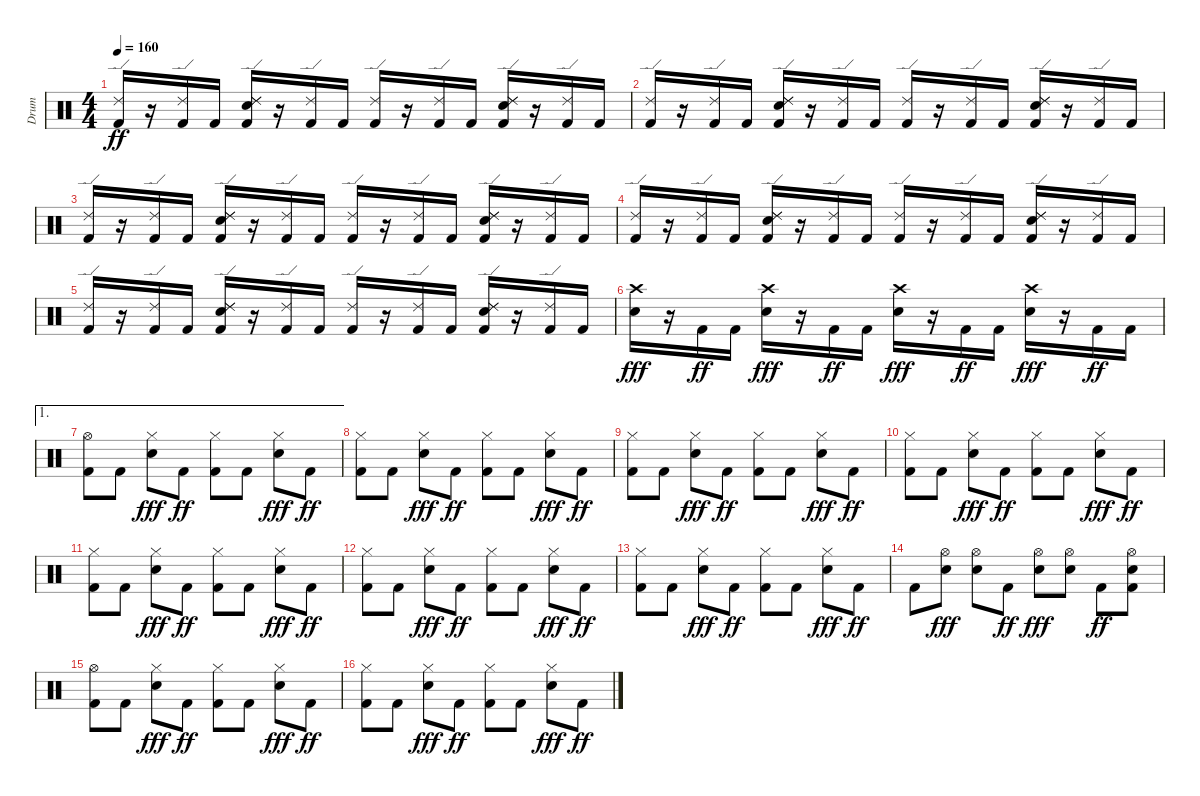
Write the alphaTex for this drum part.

\track ("Drum" "Drum") {instrument percussion}
\staff {score}
\articulation defaults
\ts (4 4)
\tempo 160
\clef neutral
\ks c
("Ride (edge) 2" "Kick (hit) 2").16{dy ff} r.16 ("Ride (edge) 2" "Kick (hit) 2").16 "Kick (hit) 2".16 ("Ride (edge) 2" "Snare (hit) 2" "Kick (hit) 2" "Ride (edge) 2").16 r.16 ("Ride (edge) 2" "Kick (hit) 2").16 "Kick (hit) 2".16 ("Ride (edge) 2" "Kick (hit) 2").16 r.16 ("Ride (edge) 2" "Kick (hit) 2").16 "Kick (hit) 2".16 ("Ride (edge) 2" "Snare (hit) 2" "Kick (hit) 2" "Ride (edge) 2").16 r.16 ("Ride (edge) 2" "Kick (hit) 2").16 "Kick (hit) 2".16 |
("Ride (edge) 2" "Kick (hit) 2").16 r.16 ("Ride (edge) 2" "Kick (hit) 2").16 "Kick (hit) 2".16 ("Ride (edge) 2" "Snare (hit) 2" "Kick (hit) 2" "Ride (edge) 2").16 r.16 ("Ride (edge) 2" "Kick (hit) 2").16 "Kick (hit) 2".16 ("Ride (edge) 2" "Kick (hit) 2").16 r.16 ("Ride (edge) 2" "Kick (hit) 2").16 "Kick (hit) 2".16 ("Ride (edge) 2" "Snare (hit) 2" "Kick (hit) 2" "Ride (edge) 2").16 r.16 ("Ride (edge) 2" "Kick (hit) 2").16 "Kick (hit) 2".16 |
("Ride (edge) 2" "Kick (hit) 2").16 r.16 ("Ride (edge) 2" "Kick (hit) 2").16 "Kick (hit) 2".16 ("Ride (edge) 2" "Snare (hit) 2" "Kick (hit) 2" "Ride (edge) 2").16 r.16 ("Ride (edge) 2" "Kick (hit) 2").16 "Kick (hit) 2".16 ("Ride (edge) 2" "Kick (hit) 2").16 r.16 ("Ride (edge) 2" "Kick (hit) 2").16 "Kick (hit) 2".16 ("Ride (edge) 2" "Snare (hit) 2" "Kick (hit) 2" "Ride (edge) 2").16 r.16 ("Ride (edge) 2" "Kick (hit) 2").16 "Kick (hit) 2".16 |
("Ride (edge) 2" "Kick (hit) 2").16 r.16 ("Ride (edge) 2" "Kick (hit) 2").16 "Kick (hit) 2".16 ("Ride (edge) 2" "Snare (hit) 2" "Kick (hit) 2" "Ride (edge) 2").16 r.16 ("Ride (edge) 2" "Kick (hit) 2").16 "Kick (hit) 2".16 ("Ride (edge) 2" "Kick (hit) 2").16 r.16 ("Ride (edge) 2" "Kick (hit) 2").16 "Kick (hit) 2".16 ("Ride (edge) 2" "Snare (hit) 2" "Kick (hit) 2" "Ride (edge) 2").16 r.16 ("Ride (edge) 2" "Kick (hit) 2").16 "Kick (hit) 2".16 |
("Ride (edge) 2" "Kick (hit) 2").16 r.16 ("Ride (edge) 2" "Kick (hit) 2").16 "Kick (hit) 2".16 ("Ride (edge) 2" "Snare (hit) 2" "Kick (hit) 2" "Ride (edge) 2").16 r.16 ("Ride (edge) 2" "Kick (hit) 2").16 "Kick (hit) 2".16 ("Ride (edge) 2" "Kick (hit) 2").16 r.16 ("Ride (edge) 2" "Kick (hit) 2").16 "Kick (hit) 2".16 ("Ride (edge) 2" "Snare (hit) 2" "Kick (hit) 2" "Ride (edge) 2").16 r.16 ("Ride (edge) 2" "Kick (hit) 2").16 "Kick (hit) 2".16 |
("Crash high (hit)" "Snare (hit) 2").16{dy fff} r.16 "Kick (hit) 2".16{dy ff} "Kick (hit) 2".16 ("Crash high (hit)" "Snare (hit) 2").16{dy fff} r.16 "Kick (hit) 2".16{dy ff} "Kick (hit) 2".16 ("Crash high (hit)" "Snare (hit) 2").16{dy fff} r.16 "Kick (hit) 2".16{dy ff} "Kick (hit) 2".16 ("Crash high (hit)" "Snare (hit) 2").16{dy fff} r.16 "Kick (hit) 2".16{dy ff} "Kick (hit) 2".16 |
\ae 1
("Hi-Hat (open)" "Kick (hit) 2").8 "Kick (hit) 2".8 ("Hi-Hat (closed)" "Snare (hit) 2").8{dy fff} "Kick (hit) 2".8{dy ff} ("Hi-Hat (closed)" "Kick (hit) 2").8 "Kick (hit) 2".8 ("Hi-Hat (closed)" "Snare (hit) 2").8{dy fff} "Kick (hit) 2".8{dy ff} |
("Hi-Hat (closed)" "Kick (hit) 2").8 "Kick (hit) 2".8 ("Hi-Hat (closed)" "Snare (hit) 2").8{dy fff} "Kick (hit) 2".8{dy ff} ("Hi-Hat (closed)" "Kick (hit) 2").8 "Kick (hit) 2".8 ("Hi-Hat (closed)" "Snare (hit) 2").8{dy fff} "Kick (hit) 2".8{dy ff} |
("Hi-Hat (closed)" "Kick (hit) 2").8 "Kick (hit) 2".8 ("Hi-Hat (closed)" "Snare (hit) 2").8{dy fff} "Kick (hit) 2".8{dy ff} ("Hi-Hat (closed)" "Kick (hit) 2").8 "Kick (hit) 2".8 ("Hi-Hat (closed)" "Snare (hit) 2").8{dy fff} "Kick (hit) 2".8{dy ff} |
("Hi-Hat (closed)" "Kick (hit) 2").8 "Kick (hit) 2".8 ("Hi-Hat (closed)" "Snare (hit) 2").8{dy fff} "Kick (hit) 2".8{dy ff} ("Hi-Hat (closed)" "Kick (hit) 2").8 "Kick (hit) 2".8 ("Hi-Hat (closed)" "Snare (hit) 2").8{dy fff} "Kick (hit) 2".8{dy ff} |
("Hi-Hat (closed)" "Kick (hit) 2").8 "Kick (hit) 2".8 ("Hi-Hat (closed)" "Snare (hit) 2").8{dy fff} "Kick (hit) 2".8{dy ff} ("Hi-Hat (closed)" "Kick (hit) 2").8 "Kick (hit) 2".8 ("Hi-Hat (closed)" "Snare (hit) 2").8{dy fff} "Kick (hit) 2".8{dy ff} |
("Hi-Hat (closed)" "Kick (hit) 2").8 "Kick (hit) 2".8 ("Hi-Hat (closed)" "Snare (hit) 2").8{dy fff} "Kick (hit) 2".8{dy ff} ("Hi-Hat (closed)" "Kick (hit) 2").8 "Kick (hit) 2".8 ("Hi-Hat (closed)" "Snare (hit) 2").8{dy fff} "Kick (hit) 2".8{dy ff} |
("Hi-Hat (closed)" "Kick (hit) 2").8 "Kick (hit) 2".8 ("Hi-Hat (closed)" "Snare (hit) 2").8{dy fff} "Kick (hit) 2".8{dy ff} ("Hi-Hat (closed)" "Kick (hit) 2").8 "Kick (hit) 2".8 ("Hi-Hat (closed)" "Snare (hit) 2").8{dy fff} "Kick (hit) 2".8{dy ff} |
"Kick (hit) 2".8 ("Hi-Hat (open)" "Snare (hit) 2").8{dy fff} ("Hi-Hat (open)" "Snare (hit) 2").8 "Kick (hit) 2".8{dy ff} ("Hi-Hat (open)" "Snare (hit) 2").8{dy fff} ("Hi-Hat (open)" "Snare (hit) 2").8 "Kick (hit) 2".8{dy ff} ("Hi-Hat (open)" "Snare (hit) 2" "Kick (hit) 2").8 |
("Hi-Hat (open)" "Kick (hit) 2").8 "Kick (hit) 2".8 ("Hi-Hat (closed)" "Snare (hit) 2").8{dy fff} "Kick (hit) 2".8{dy ff} ("Hi-Hat (closed)" "Kick (hit) 2").8 "Kick (hit) 2".8 ("Hi-Hat (closed)" "Snare (hit) 2").8{dy fff} "Kick (hit) 2".8{dy ff} |
("Hi-Hat (closed)" "Kick (hit) 2").8 "Kick (hit) 2".8 ("Hi-Hat (closed)" "Snare (hit) 2").8{dy fff} "Kick (hit) 2".8{dy ff} ("Hi-Hat (closed)" "Kick (hit) 2").8 "Kick (hit) 2".8 ("Hi-Hat (closed)" "Snare (hit) 2").8{dy fff} "Kick (hit) 2".8{dy ff}
